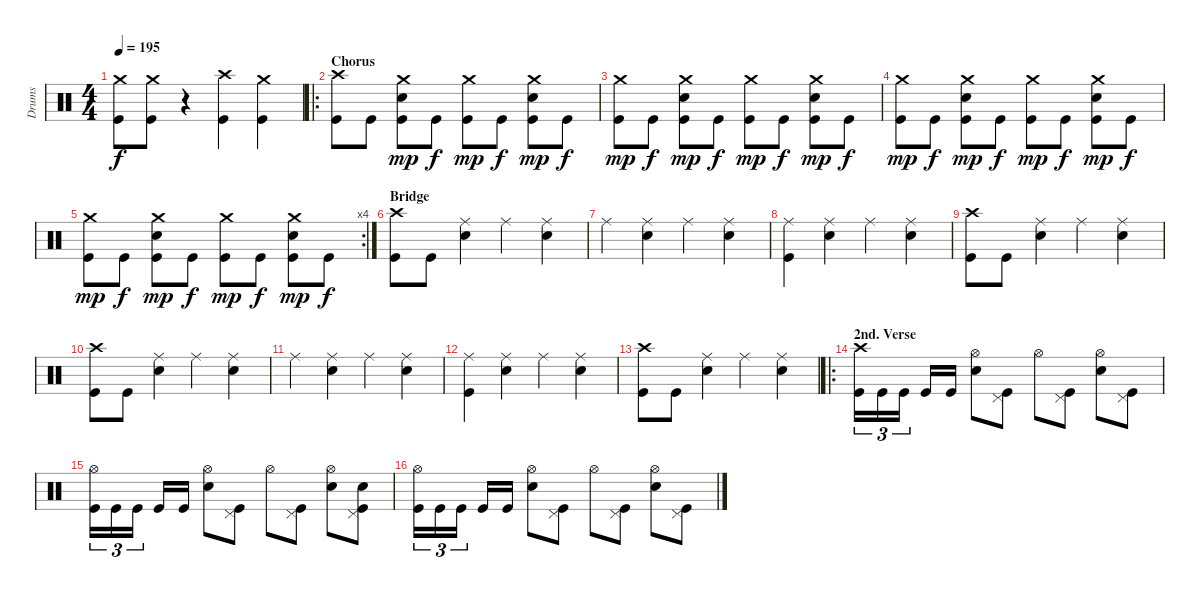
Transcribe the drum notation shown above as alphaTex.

\track ("Drums" "Drums") {instrument percussion}
\staff {score}
\articulation defaults
\ts (4 4)
\tempo 195
\clef neutral
\ks c
("Crash medium (hit)" "Kick (hit)").8{dy f} ("Crash medium (hit)" "Kick (hit)").8 r.4 ("Crash high (hit)" "Kick (hit)").4 ("Crash medium (hit)" "Kick (hit)").4 |
\ro
\section ("" "Chorus")
("Crash high (hit)" "Kick (hit)").8 "Kick (hit)".8 ("Crash medium (hit)" "Electric Snare (hit)" "Kick (hit)").8{dy mp} "Kick (hit)".8{dy f} ("Crash medium (hit)" "Kick (hit)").8{dy mp} "Kick (hit)".8{dy f} ("Crash medium (hit)" "Electric Snare (hit)" "Kick (hit)").8{dy mp} "Kick (hit)".8{dy f} |
("Crash medium (hit)" "Kick (hit)").8{dy mp} "Kick (hit)".8{dy f} ("Crash medium (hit)" "Electric Snare (hit)" "Kick (hit)").8{dy mp} "Kick (hit)".8{dy f} ("Crash medium (hit)" "Kick (hit)").8{dy mp} "Kick (hit)".8{dy f} ("Crash medium (hit)" "Electric Snare (hit)" "Kick (hit)").8{dy mp} "Kick (hit)".8{dy f} |
("Crash medium (hit)" "Kick (hit)").8{dy mp} "Kick (hit)".8{dy f} ("Crash medium (hit)" "Electric Snare (hit)" "Kick (hit)").8{dy mp} "Kick (hit)".8{dy f} ("Crash medium (hit)" "Kick (hit)").8{dy mp} "Kick (hit)".8{dy f} ("Crash medium (hit)" "Electric Snare (hit)" "Kick (hit)").8{dy mp} "Kick (hit)".8{dy f} |
\rc 4
("Crash medium (hit)" "Kick (hit)").8{dy mp} "Kick (hit)".8{dy f} ("Crash medium (hit)" "Electric Snare (hit)" "Kick (hit)").8{dy mp} "Kick (hit)".8{dy f} ("Crash medium (hit)" "Kick (hit)").8{dy mp} "Kick (hit)".8{dy f} ("Crash medium (hit)" "Electric Snare (hit)" "Kick (hit)").8{dy mp} "Kick (hit)".8{dy f} |
\section ("" "Bridge")
("Crash high (hit)" "Kick (hit)").8 "Kick (hit)".8 ("Ride (middle)" "Electric Snare (hit)").4 "Ride (middle)".4 ("Ride (middle)" "Electric Snare (hit)").4 |
"Ride (middle)".4 ("Ride (middle)" "Electric Snare (hit)").4 "Ride (middle)".4 ("Ride (middle)" "Electric Snare (hit)").4 |
("Ride (middle)" "Kick (hit)").4 ("Ride (middle)" "Electric Snare (hit)").4 "Ride (middle)".4 ("Ride (middle)" "Electric Snare (hit)").4 |
("Crash high (hit)" "Kick (hit)").8 "Kick (hit)".8 ("Ride (middle)" "Electric Snare (hit)").4 "Ride (middle)".4 ("Ride (middle)" "Electric Snare (hit)").4 |
("Crash high (hit)" "Kick (hit)").8 "Kick (hit)".8 ("Ride (middle)" "Electric Snare (hit)").4 "Ride (middle)".4 ("Ride (middle)" "Electric Snare (hit)").4 |
"Ride (middle)".4 ("Ride (middle)" "Electric Snare (hit)").4 "Ride (middle)".4 ("Ride (middle)" "Electric Snare (hit)").4 |
("Ride (middle)" "Kick (hit)").4 ("Ride (middle)" "Electric Snare (hit)").4 "Ride (middle)".4 ("Ride (middle)" "Electric Snare (hit)").4 |
("Crash high (hit)" "Kick (hit)").8 "Kick (hit)".8 ("Ride (middle)" "Electric Snare (hit)").4 "Ride (middle)".4 ("Ride (middle)" "Electric Snare (hit)").4 |
\ro
\section ("" "2nd. Verse")
("Crash high (hit)" "Kick (hit)").16{tu (3 2)} "Kick (hit)".16{tu (3 2)} "Kick (hit)".16{tu (3 2)} "Kick (hit)".16 "Kick (hit)".16 ("Hi-Hat (open)" "Electric Snare (hit)").8 ("Pedal Hi-Hat (hit)" "Kick (hit)").8 "Hi-Hat (open)".8 ("Pedal Hi-Hat (hit)" "Kick (hit)").8 ("Hi-Hat (open)" "Electric Snare (hit)").8 ("Pedal Hi-Hat (hit)" "Kick (hit)").8 |
("Hi-Hat (open)" "Kick (hit)").16{tu (3 2)} "Kick (hit)".16{tu (3 2)} "Kick (hit)".16{tu (3 2)} "Kick (hit)".16 "Kick (hit)".16 ("Hi-Hat (open)" "Electric Snare (hit)").8 ("Pedal Hi-Hat (hit)" "Kick (hit)").8 "Hi-Hat (open)".8 ("Pedal Hi-Hat (hit)" "Kick (hit)").8 ("Hi-Hat (open)" "Electric Snare (hit)").8 ("Pedal Hi-Hat (hit)" "Electric Snare (hit)" "Kick (hit)").8 |
("Hi-Hat (open)" "Kick (hit)").16{tu (3 2)} "Kick (hit)".16{tu (3 2)} "Kick (hit)".16{tu (3 2)} "Kick (hit)".16 "Kick (hit)".16 ("Hi-Hat (open)" "Electric Snare (hit)").8 ("Pedal Hi-Hat (hit)" "Kick (hit)").8 "Hi-Hat (open)".8 ("Pedal Hi-Hat (hit)" "Kick (hit)").8 ("Hi-Hat (open)" "Electric Snare (hit)").8 ("Pedal Hi-Hat (hit)" "Kick (hit)").8
